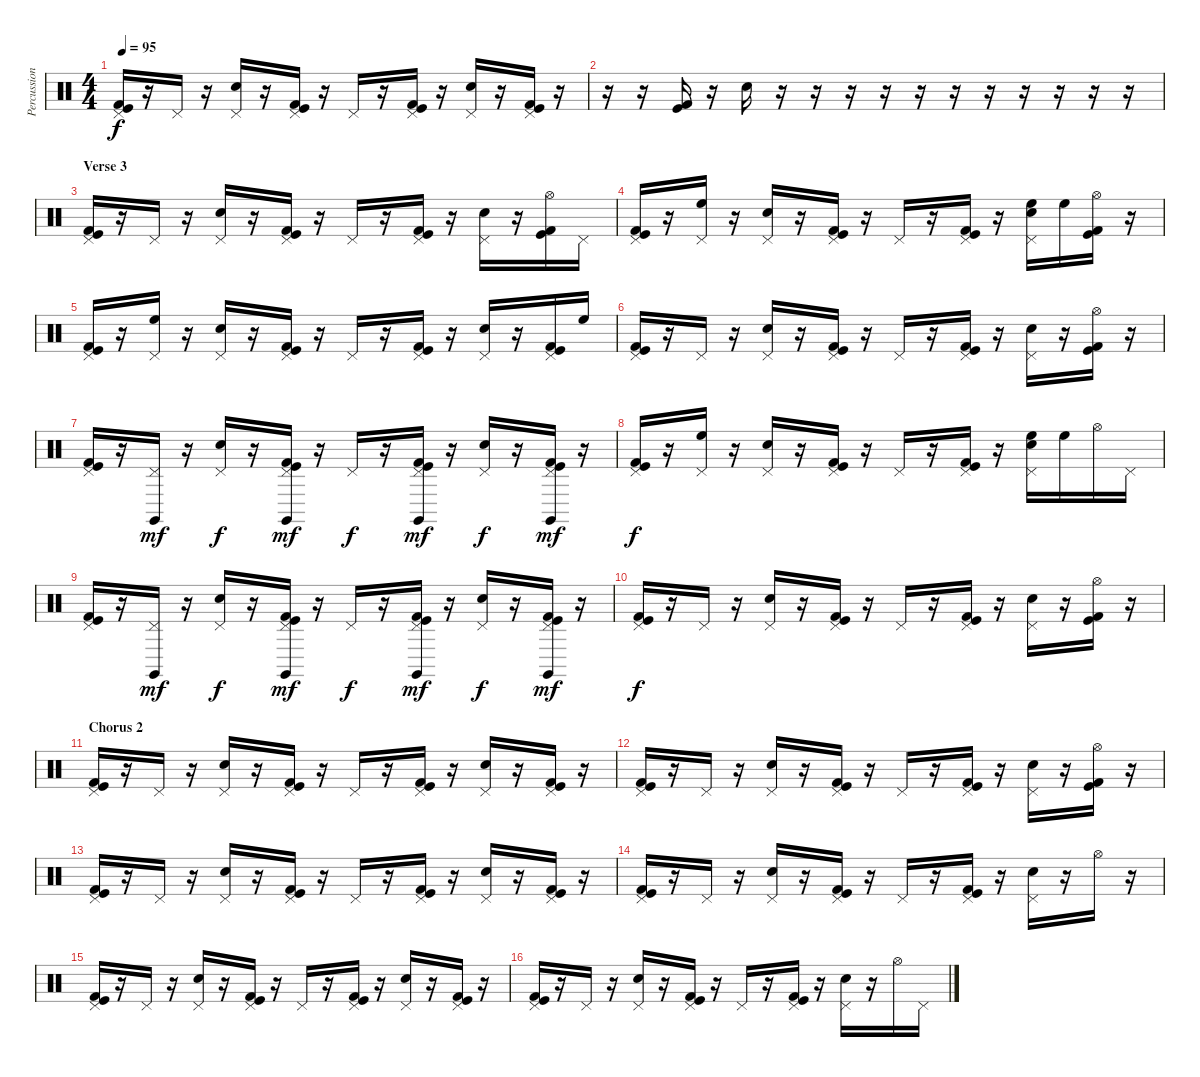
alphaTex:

\track ("Percussion" "Percussion") {instrument percussion}
\staff {score}
\articulation defaults
\ts (4 4)
\tempo 95
\clef neutral
\ks c
("Pedal Hi-Hat (hit)" "Kick (hit) 2" "Kick (hit)").16{dy f} r.16 "Pedal Hi-Hat (hit)".16 r.16 ("Pedal Hi-Hat (hit)" "Snare (hit) 2").16 r.16 ("Pedal Hi-Hat (hit)" "Kick (hit) 2" "Kick (hit)").16 r.16 "Pedal Hi-Hat (hit)".16 r.16 ("Pedal Hi-Hat (hit)" "Kick (hit) 2" "Kick (hit)").16 r.16 ("Pedal Hi-Hat (hit)" "Snare (hit) 2").16 r.16 ("Pedal Hi-Hat (hit)" "Kick (hit) 2" "Kick (hit)").16 r.16 |
r.16 r.16 ("Kick (hit) 2" "Kick (hit)").16 r.16 "Snare (hit) 2".16 r.16 r.16 r.16 r.16 r.16 r.16 r.16 r.16 r.16 r.16 r.16 |
\section ("" "Verse 3")
("Pedal Hi-Hat (hit)" "Kick (hit) 2" "Kick (hit)").16 r.16 "Pedal Hi-Hat (hit)".16 r.16 ("Pedal Hi-Hat (hit)" "Snare (hit) 2").16 r.16 ("Pedal Hi-Hat (hit)" "Kick (hit) 2" "Kick (hit)").16 r.16 "Pedal Hi-Hat (hit)".16 r.16 ("Pedal Hi-Hat (hit)" "Kick (hit) 2" "Kick (hit)").16 r.16 ("Pedal Hi-Hat (hit)" "Snare (hit) 2").16 r.16 ("Hi-Hat (open)" "Kick (hit) 2" "Kick (hit)").16 "Pedal Hi-Hat (hit)".16 |
("Pedal Hi-Hat (hit)" "Kick (hit) 2" "Kick (hit)").16 r.16 ("Pedal Hi-Hat (hit)" "High Floor Tom (hit)").16 r.16 ("Pedal Hi-Hat (hit)" "Snare (hit) 2").16 r.16 ("Pedal Hi-Hat (hit)" "Kick (hit) 2" "Kick (hit)").16 r.16 "Pedal Hi-Hat (hit)".16 r.16 ("Pedal Hi-Hat (hit)" "Kick (hit) 2" "Kick (hit)").16 r.16 ("Pedal Hi-Hat (hit)" "High Floor Tom (hit)" "Snare (hit) 2").16 "High Floor Tom (hit)".16 ("Hi-Hat (open)" "Kick (hit) 2" "Kick (hit)").16 r.16 |
("Pedal Hi-Hat (hit)" "Kick (hit) 2" "Kick (hit)").16 r.16 ("Pedal Hi-Hat (hit)" "High Floor Tom (hit)").16 r.16 ("Pedal Hi-Hat (hit)" "Snare (hit) 2").16 r.16 ("Pedal Hi-Hat (hit)" "Kick (hit) 2" "Kick (hit)").16 r.16 "Pedal Hi-Hat (hit)".16 r.16 ("Pedal Hi-Hat (hit)" "Kick (hit) 2" "Kick (hit)").16 r.16 ("Pedal Hi-Hat (hit)" "Snare (hit) 2").16 r.16 ("Pedal Hi-Hat (hit)" "Kick (hit) 2" "Kick (hit)").16 "High Floor Tom (hit)".16 |
("Pedal Hi-Hat (hit)" "Kick (hit) 2" "Kick (hit)").16 r.16 "Pedal Hi-Hat (hit)".16 r.16 ("Pedal Hi-Hat (hit)" "Snare (hit) 2").16 r.16 ("Pedal Hi-Hat (hit)" "Kick (hit) 2" "Kick (hit)").16 r.16 "Pedal Hi-Hat (hit)".16 r.16 ("Pedal Hi-Hat (hit)" "Kick (hit) 2" "Kick (hit)").16 r.16 ("Pedal Hi-Hat (hit)" "Snare (hit) 2").16 r.16 ("Hi-Hat (open)" "Kick (hit) 2" "Kick (hit)").16 r.16 |
("Pedal Hi-Hat (hit)" "Kick (hit) 2" "Kick (hit)").16 r.16 ("Pedal Hi-Hat (hit)" "Claves (hit)").16{dy mf} r.16 ("Pedal Hi-Hat (hit)" "Snare (hit) 2").16{dy f} r.16 ("Pedal Hi-Hat (hit)" "Claves (hit)" "Kick (hit) 2" "Kick (hit)").16{dy mf} r.16 "Pedal Hi-Hat (hit)".16{dy f} r.16 ("Pedal Hi-Hat (hit)" "Claves (hit)" "Kick (hit) 2" "Kick (hit)").16{dy mf} r.16 ("Pedal Hi-Hat (hit)" "Snare (hit) 2").16{dy f} r.16 ("Pedal Hi-Hat (hit)" "Claves (hit)" "Kick (hit) 2" "Kick (hit)").16{dy mf} r.16 |
("Pedal Hi-Hat (hit)" "Kick (hit) 2" "Kick (hit)").16{dy f} r.16 ("Pedal Hi-Hat (hit)" "High Floor Tom (hit)").16 r.16 ("Pedal Hi-Hat (hit)" "Snare (hit) 2").16 r.16 ("Pedal Hi-Hat (hit)" "Kick (hit) 2" "Kick (hit)").16 r.16 "Pedal Hi-Hat (hit)".16 r.16 ("Pedal Hi-Hat (hit)" "Kick (hit) 2" "Kick (hit)").16 r.16 ("Pedal Hi-Hat (hit)" "High Floor Tom (hit)" "Snare (hit) 2").16 "High Floor Tom (hit)".16 "Hi-Hat (open)".16 "Pedal Hi-Hat (hit)".16 |
("Pedal Hi-Hat (hit)" "Kick (hit) 2" "Kick (hit)").16 r.16 ("Pedal Hi-Hat (hit)" "Claves (hit)").16{dy mf} r.16 ("Pedal Hi-Hat (hit)" "Snare (hit) 2").16{dy f} r.16 ("Pedal Hi-Hat (hit)" "Claves (hit)" "Kick (hit) 2" "Kick (hit)").16{dy mf} r.16 "Pedal Hi-Hat (hit)".16{dy f} r.16 ("Pedal Hi-Hat (hit)" "Claves (hit)" "Kick (hit) 2" "Kick (hit)").16{dy mf} r.16 ("Pedal Hi-Hat (hit)" "Snare (hit) 2").16{dy f} r.16 ("Pedal Hi-Hat (hit)" "Claves (hit)" "Kick (hit) 2" "Kick (hit)").16{dy mf} r.16 |
("Pedal Hi-Hat (hit)" "Kick (hit) 2" "Kick (hit)").16{dy f} r.16 "Pedal Hi-Hat (hit)".16 r.16 ("Pedal Hi-Hat (hit)" "Snare (hit) 2").16 r.16 ("Pedal Hi-Hat (hit)" "Kick (hit) 2" "Kick (hit)").16 r.16 "Pedal Hi-Hat (hit)".16 r.16 ("Pedal Hi-Hat (hit)" "Kick (hit) 2" "Kick (hit)").16 r.16 ("Pedal Hi-Hat (hit)" "Snare (hit) 2").16 r.16 ("Hi-Hat (open)" "Kick (hit) 2" "Kick (hit)").16 r.16 |
\section ("" "Chorus 2")
("Pedal Hi-Hat (hit)" "Kick (hit) 2" "Kick (hit)").16 r.16 "Pedal Hi-Hat (hit)".16 r.16 ("Pedal Hi-Hat (hit)" "Snare (hit) 2").16 r.16 ("Pedal Hi-Hat (hit)" "Kick (hit) 2" "Kick (hit)").16 r.16 "Pedal Hi-Hat (hit)".16 r.16 ("Pedal Hi-Hat (hit)" "Kick (hit) 2" "Kick (hit)").16 r.16 ("Pedal Hi-Hat (hit)" "Snare (hit) 2").16 r.16 ("Pedal Hi-Hat (hit)" "Kick (hit) 2" "Kick (hit)").16 r.16 |
("Pedal Hi-Hat (hit)" "Kick (hit) 2" "Kick (hit)").16 r.16 "Pedal Hi-Hat (hit)".16 r.16 ("Pedal Hi-Hat (hit)" "Snare (hit) 2").16 r.16 ("Pedal Hi-Hat (hit)" "Kick (hit) 2" "Kick (hit)").16 r.16 "Pedal Hi-Hat (hit)".16 r.16 ("Pedal Hi-Hat (hit)" "Kick (hit) 2" "Kick (hit)").16 r.16 ("Pedal Hi-Hat (hit)" "Snare (hit) 2").16 r.16 ("Hi-Hat (open)" "Kick (hit) 2" "Kick (hit)").16 r.16 |
("Pedal Hi-Hat (hit)" "Kick (hit) 2" "Kick (hit)").16 r.16 "Pedal Hi-Hat (hit)".16 r.16 ("Pedal Hi-Hat (hit)" "Snare (hit) 2").16 r.16 ("Pedal Hi-Hat (hit)" "Kick (hit) 2" "Kick (hit)").16 r.16 "Pedal Hi-Hat (hit)".16 r.16 ("Pedal Hi-Hat (hit)" "Kick (hit) 2" "Kick (hit)").16 r.16 ("Pedal Hi-Hat (hit)" "Snare (hit) 2").16 r.16 ("Pedal Hi-Hat (hit)" "Kick (hit) 2" "Kick (hit)").16 r.16 |
("Pedal Hi-Hat (hit)" "Kick (hit) 2" "Kick (hit)").16 r.16 "Pedal Hi-Hat (hit)".16 r.16 ("Pedal Hi-Hat (hit)" "Snare (hit) 2").16 r.16 ("Pedal Hi-Hat (hit)" "Kick (hit) 2" "Kick (hit)").16 r.16 "Pedal Hi-Hat (hit)".16 r.16 ("Pedal Hi-Hat (hit)" "Kick (hit) 2" "Kick (hit)").16 r.16 ("Pedal Hi-Hat (hit)" "Snare (hit) 2").16 r.16 "Hi-Hat (open)".16 r.16 |
("Pedal Hi-Hat (hit)" "Kick (hit) 2" "Kick (hit)").16 r.16 "Pedal Hi-Hat (hit)".16 r.16 ("Pedal Hi-Hat (hit)" "Snare (hit) 2").16 r.16 ("Pedal Hi-Hat (hit)" "Kick (hit) 2" "Kick (hit)").16 r.16 "Pedal Hi-Hat (hit)".16 r.16 ("Pedal Hi-Hat (hit)" "Kick (hit) 2" "Kick (hit)").16 r.16 ("Pedal Hi-Hat (hit)" "Snare (hit) 2").16 r.16 ("Pedal Hi-Hat (hit)" "Kick (hit) 2" "Kick (hit)").16 r.16 |
("Pedal Hi-Hat (hit)" "Kick (hit) 2" "Kick (hit)").16 r.16 "Pedal Hi-Hat (hit)".16 r.16 ("Pedal Hi-Hat (hit)" "Snare (hit) 2").16 r.16 ("Pedal Hi-Hat (hit)" "Kick (hit) 2" "Kick (hit)").16 r.16 "Pedal Hi-Hat (hit)".16 r.16 ("Pedal Hi-Hat (hit)" "Kick (hit) 2" "Kick (hit)").16 r.16 ("Pedal Hi-Hat (hit)" "Snare (hit) 2").16 r.16 "Hi-Hat (open)".16 "Pedal Hi-Hat (hit)".16
